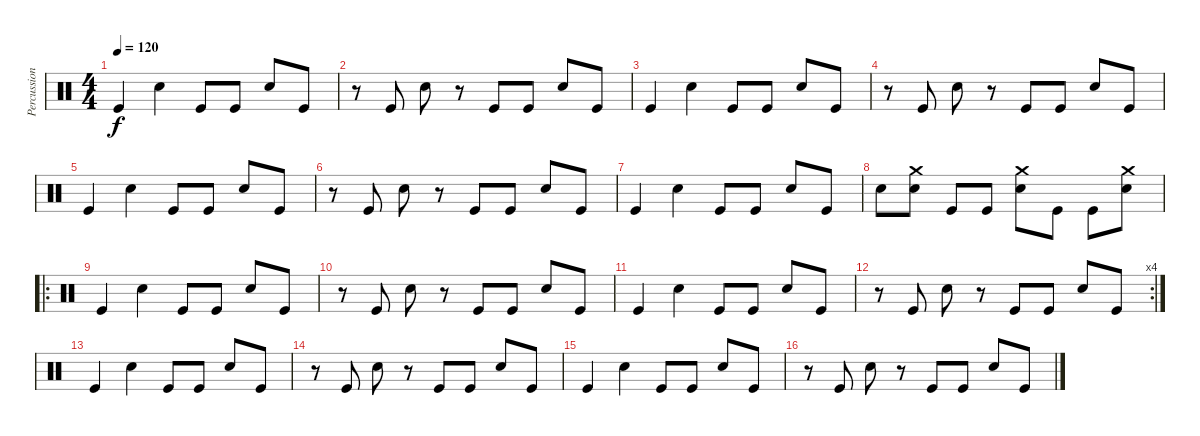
\track ("Percussions" "Percussion") {instrument percussion}
\staff {score}
\articulation defaults
\ts (4 4)
\tempo 120
\clef neutral
\ks c "Kick (hit)".4{dy f} "Electric Snare (hit)".4 "Kick (hit)".8 "Kick (hit)".8 "Electric Snare (hit)".8 "Kick (hit)".8
|
r.8 "Kick (hit)".8 "Electric Snare (hit)".8 r.8 "Kick (hit)".8 "Kick (hit)".8 "Electric Snare (hit)".8 "Kick (hit)".8 |
"Kick (hit)".4 "Electric Snare (hit)".4 "Kick (hit)".8 "Kick (hit)".8 "Electric Snare (hit)".8 "Kick (hit)".8 |
r.8 "Kick (hit)".8 "Electric Snare (hit)".8 r.8 "Kick (hit)".8 "Kick (hit)".8 "Electric Snare (hit)".8 "Kick (hit)".8 |
"Kick (hit)".4 "Electric Snare (hit)".4 "Kick (hit)".8 "Kick (hit)".8 "Electric Snare (hit)".8 "Kick (hit)".8 |
r.8 "Kick (hit)".8 "Electric Snare (hit)".8 r.8 "Kick (hit)".8 "Kick (hit)".8 "Electric Snare (hit)".8 "Kick (hit)".8 |
"Kick (hit)".4 "Electric Snare (hit)".4 "Kick (hit)".8 "Kick (hit)".8 "Electric Snare (hit)".8 "Kick (hit)".8 |
"Snare (hit)".8 ("Crash medium (hit)" "Electric Snare (hit)").8 "Kick (hit)".8 "Kick (hit)".8 ("Crash medium (hit)" "Electric Snare (hit)").8 "Kick (hit)".8 "Kick (hit)".8 ("Crash medium (hit)" "Electric Snare (hit)").8 |
\ro "Kick (hit)".4 "Electric Snare (hit)".4 "Kick (hit)".8 "Kick (hit)".8 "Electric Snare (hit)".8 "Kick (hit)".8
|
r.8 "Kick (hit)".8 "Electric Snare (hit)".8 r.8 "Kick (hit)".8 "Kick (hit)".8 "Electric Snare (hit)".8 "Kick (hit)".8 |
"Kick (hit)".4 "Electric Snare (hit)".4 "Kick (hit)".8 "Kick (hit)".8 "Electric Snare (hit)".8 "Kick (hit)".8 |
\rc 4
r.8 "Kick (hit)".8 "Electric Snare (hit)".8 r.8 "Kick (hit)".8 "Kick (hit)".8 "Electric Snare (hit)".8 "Kick (hit)".8 |
"Kick (hit)".4 "Electric Snare (hit)".4 "Kick (hit)".8 "Kick (hit)".8 "Electric Snare (hit)".8 "Kick (hit)".8 |
r.8 "Kick (hit)".8 "Electric Snare (hit)".8 r.8 "Kick (hit)".8 "Kick (hit)".8 "Electric Snare (hit)".8 "Kick (hit)".8 |
"Kick (hit)".4 "Electric Snare (hit)".4 "Kick (hit)".8 "Kick (hit)".8 "Electric Snare (hit)".8 "Kick (hit)".8 |
r.8 "Kick (hit)".8 "Electric Snare (hit)".8 r.8 "Kick (hit)".8 "Kick (hit)".8 "Electric Snare (hit)".8 "Kick (hit)".8
